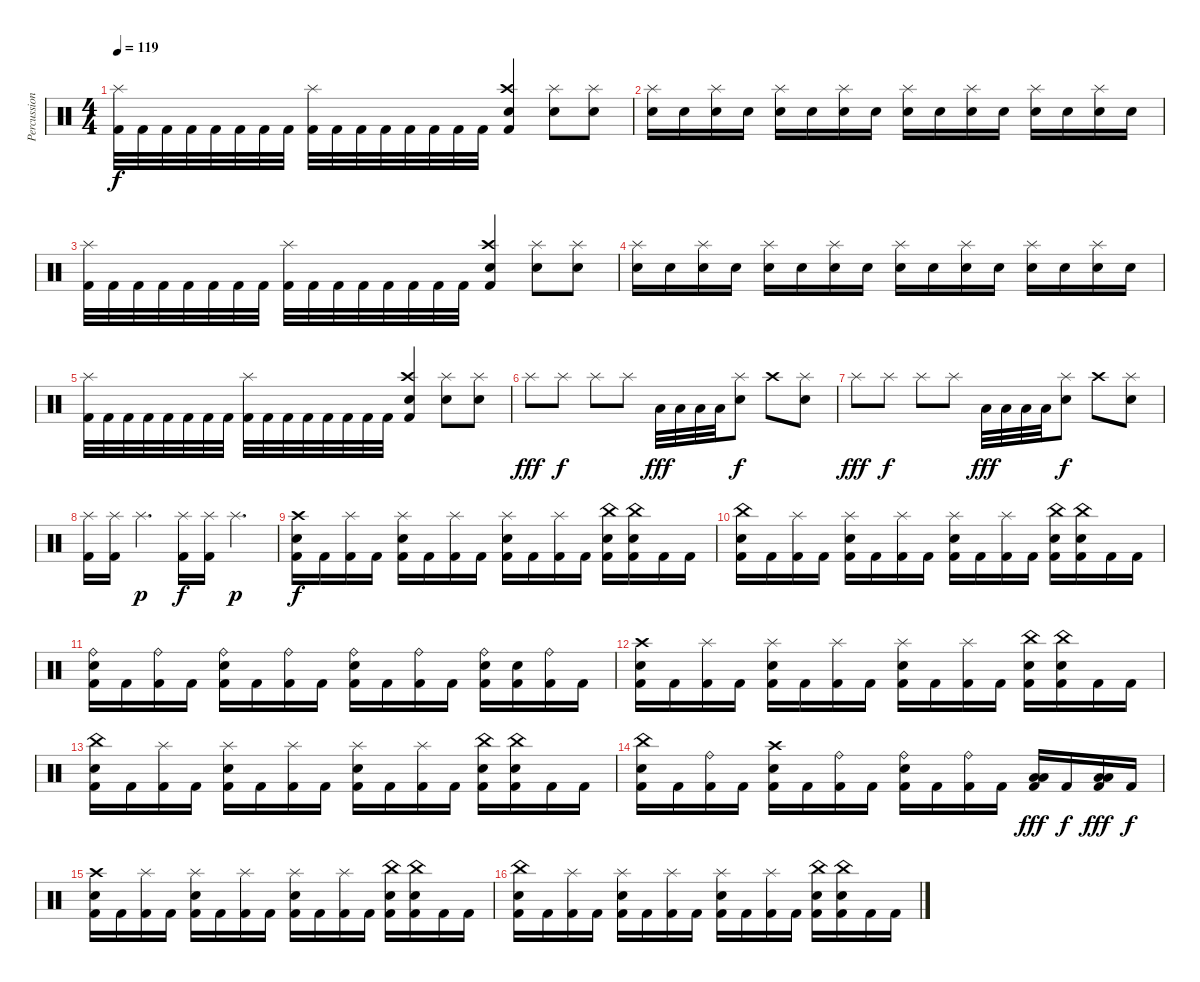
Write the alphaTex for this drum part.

\track ("Percussion" "Percussion") {instrument percussion}
\staff {score}
\articulation defaults
\ts (4 4)
\tempo 119
\clef neutral
\ks c
("Splash (hit)" "Kick (hit) 2").32{dy f} "Kick (hit) 2".32 "Kick (hit) 2".32 "Kick (hit) 2".32 "Kick (hit) 2".32 "Kick (hit) 2".32 "Kick (hit) 2".32 "Kick (hit) 2".32 ("Splash (hit)" "Kick (hit) 2").32 "Kick (hit) 2".32 "Kick (hit) 2".32 "Kick (hit) 2".32 "Kick (hit) 2".32 "Kick (hit) 2".32 "Kick (hit) 2".32 "Kick (hit) 2".32 ("Crash high (hit)" "Electric Snare (hit)" "Kick (hit) 2").4 ("Splash (hit)" "Electric Snare (hit)").8 ("Splash (hit)" "Electric Snare (hit)").8 |
("Splash (hit)" "Electric Snare (hit)").16 "Electric Snare (hit)".16 ("Splash (hit)" "Electric Snare (hit)").16 "Electric Snare (hit)".16 ("Splash (hit)" "Electric Snare (hit)").16 "Electric Snare (hit)".16 ("Splash (hit)" "Electric Snare (hit)").16 "Electric Snare (hit)".16 ("Splash (hit)" "Electric Snare (hit)").16 "Electric Snare (hit)".16 ("Splash (hit)" "Electric Snare (hit)").16 "Electric Snare (hit)".16 ("Splash (hit)" "Electric Snare (hit)").16 "Electric Snare (hit)".16 ("Splash (hit)" "Electric Snare (hit)").16 "Electric Snare (hit)".16 |
("Splash (hit)" "Kick (hit) 2").32 "Kick (hit) 2".32 "Kick (hit) 2".32 "Kick (hit) 2".32 "Kick (hit) 2".32 "Kick (hit) 2".32 "Kick (hit) 2".32 "Kick (hit) 2".32 ("Splash (hit)" "Kick (hit) 2").32 "Kick (hit) 2".32 "Kick (hit) 2".32 "Kick (hit) 2".32 "Kick (hit) 2".32 "Kick (hit) 2".32 "Kick (hit) 2".32 "Kick (hit) 2".32 ("Crash high (hit)" "Electric Snare (hit)" "Kick (hit) 2").4 ("Splash (hit)" "Electric Snare (hit)").8 ("Splash (hit)" "Electric Snare (hit)").8 |
("Splash (hit)" "Electric Snare (hit)").16 "Electric Snare (hit)".16 ("Splash (hit)" "Electric Snare (hit)").16 "Electric Snare (hit)".16 ("Splash (hit)" "Electric Snare (hit)").16 "Electric Snare (hit)".16 ("Splash (hit)" "Electric Snare (hit)").16 "Electric Snare (hit)".16 ("Splash (hit)" "Electric Snare (hit)").16 "Electric Snare (hit)".16 ("Splash (hit)" "Electric Snare (hit)").16 "Electric Snare (hit)".16 ("Splash (hit)" "Electric Snare (hit)").16 "Electric Snare (hit)".16 ("Splash (hit)" "Electric Snare (hit)").16 "Electric Snare (hit)".16 |
("Splash (hit)" "Kick (hit) 2").32 "Kick (hit) 2".32 "Kick (hit) 2".32 "Kick (hit) 2".32 "Kick (hit) 2".32 "Kick (hit) 2".32 "Kick (hit) 2".32 "Kick (hit) 2".32 ("Splash (hit)" "Kick (hit) 2").32 "Kick (hit) 2".32 "Kick (hit) 2".32 "Kick (hit) 2".32 "Kick (hit) 2".32 "Kick (hit) 2".32 "Kick (hit) 2".32 "Kick (hit) 2".32 ("Crash high (hit)" "Electric Snare (hit)" "Kick (hit) 2").4 ("Splash (hit)" "Electric Snare (hit)").8 ("Splash (hit)" "Electric Snare (hit)").8 |
"Splash (hit)".8{dy fff} "Splash (hit)".8{dy f} "Splash (hit)".8 "Splash (hit)".8 "Low Tom (hit)".32{dy fff} "Low Tom (hit)".32 "Low Tom (hit)".32 "Low Tom (hit)".32 ("Splash (hit)" "Electric Snare (hit)").8{dy f} "Crash high (hit)".8 ("Splash (hit)" "Electric Snare (hit)").8 |
"Splash (hit)".8{dy fff} "Splash (hit)".8{dy f} "Splash (hit)".8 "Splash (hit)".8 "Low Tom (hit)".32{dy fff} "Low Tom (hit)".32 "Low Tom (hit)".32 "Low Tom (hit)".32 ("Splash (hit)" "Electric Snare (hit)").8{dy f} "Crash high (hit)".8 ("Splash (hit)" "Electric Snare (hit)").8 |
("Splash (hit)" "Kick (hit) 2").16 ("Splash (hit)" "Kick (hit) 2").16 "Splash (hit)".4{d dy p} ("Splash (hit)" "Kick (hit) 2").16{dy f} ("Splash (hit)" "Kick (hit) 2").16 "Splash (hit)".4{d dy p} |
("Crash high (hit)" "Electric Snare (hit)" "Kick (hit) 2").16{dy f} "Kick (hit) 2".16 ("Splash (hit)" "Kick (hit) 2").16 "Kick (hit) 2".16 ("Splash (hit)" "Electric Snare (hit)" "Kick (hit) 2").16 "Kick (hit) 2".16 ("Splash (hit)" "Kick (hit) 2").16 "Kick (hit) 2".16 ("Splash (hit)" "Electric Snare (hit)" "Kick (hit) 2").16 "Kick (hit) 2".16 ("Splash (hit)" "Kick (hit) 2").16 "Kick (hit) 2".16 ("China (hit)" "Electric Snare (hit)" "Kick (hit) 2").16 ("China (hit)" "Electric Snare (hit)" "Kick (hit) 2").16 "Kick (hit) 2".16 "Kick (hit) 2".16 |
("China (hit)" "Electric Snare (hit)" "Kick (hit) 2").16 "Kick (hit) 2".16 ("Splash (hit)" "Kick (hit) 2").16 "Kick (hit) 2".16 ("Splash (hit)" "Electric Snare (hit)" "Kick (hit) 2").16 "Kick (hit) 2".16 ("Splash (hit)" "Kick (hit) 2").16 "Kick (hit) 2".16 ("Splash (hit)" "Electric Snare (hit)" "Kick (hit) 2").16 "Kick (hit) 2".16 ("Splash (hit)" "Kick (hit) 2").16 "Kick (hit) 2".16 ("China (hit)" "Electric Snare (hit)" "Kick (hit) 2").16 ("China (hit)" "Electric Snare (hit)" "Kick (hit) 2").16 "Kick (hit) 2".16 "Kick (hit) 2".16 |
("Ride (bell)" "Electric Snare (hit)" "Kick (hit) 2").16 "Kick (hit) 2".16 ("Ride (bell)" "Kick (hit) 2").16 "Kick (hit) 2".16 ("Ride (bell)" "Electric Snare (hit)" "Kick (hit) 2").16 "Kick (hit) 2".16 ("Ride (bell)" "Kick (hit) 2").16 "Kick (hit) 2".16 ("Ride (bell)" "Electric Snare (hit)" "Kick (hit) 2").16 "Kick (hit) 2".16 ("Ride (bell)" "Kick (hit) 2").16 "Kick (hit) 2".16 ("Ride (bell)" "Electric Snare (hit)" "Kick (hit) 2").16 ("Electric Snare (hit)" "Kick (hit) 2").16 ("Ride (bell)" "Kick (hit) 2").16 "Kick (hit) 2".16 |
("Crash high (hit)" "Electric Snare (hit)" "Kick (hit) 2").16 "Kick (hit) 2".16 ("Splash (hit)" "Kick (hit) 2").16 "Kick (hit) 2".16 ("Splash (hit)" "Electric Snare (hit)" "Kick (hit) 2").16 "Kick (hit) 2".16 ("Splash (hit)" "Kick (hit) 2").16 "Kick (hit) 2".16 ("Splash (hit)" "Electric Snare (hit)" "Kick (hit) 2").16 "Kick (hit) 2".16 ("Splash (hit)" "Kick (hit) 2").16 "Kick (hit) 2".16 ("China (hit)" "Electric Snare (hit)" "Kick (hit) 2").16 ("China (hit)" "Electric Snare (hit)" "Kick (hit) 2").16 "Kick (hit) 2".16 "Kick (hit) 2".16 |
("China (hit)" "Electric Snare (hit)" "Kick (hit) 2").16 "Kick (hit) 2".16 ("Splash (hit)" "Kick (hit) 2").16 "Kick (hit) 2".16 ("Splash (hit)" "Electric Snare (hit)" "Kick (hit) 2").16 "Kick (hit) 2".16 ("Splash (hit)" "Kick (hit) 2").16 "Kick (hit) 2".16 ("Splash (hit)" "Electric Snare (hit)" "Kick (hit) 2").16 "Kick (hit) 2".16 ("Splash (hit)" "Kick (hit) 2").16 "Kick (hit) 2".16 ("China (hit)" "Electric Snare (hit)" "Kick (hit) 2").16 ("China (hit)" "Electric Snare (hit)" "Kick (hit) 2").16 "Kick (hit) 2".16 "Kick (hit) 2".16 |
("China (hit)" "Electric Snare (hit)" "Kick (hit) 2").16 "Kick (hit) 2".16 ("Ride (bell)" "Kick (hit) 2").16 "Kick (hit) 2".16 ("Crash high (hit)" "Electric Snare (hit)" "Kick (hit) 2").16 "Kick (hit) 2".16 ("Ride (bell)" "Kick (hit) 2").16 "Kick (hit) 2".16 ("Ride (bell)" "Electric Snare (hit)" "Kick (hit) 2").16 "Kick (hit) 2".16 ("Ride (bell)" "Kick (hit) 2").16 "Kick (hit) 2".16 ("Low Tom (hit)" "Low Tom (hit)" "Kick (hit) 2").16{dy fff} "Kick (hit) 2".16{dy f} ("Low Tom (hit)" "Low Tom (hit)" "Kick (hit) 2").16{dy fff} "Kick (hit) 2".16{dy f} |
("Crash high (hit)" "Electric Snare (hit)" "Kick (hit) 2").16 "Kick (hit) 2".16 ("Splash (hit)" "Kick (hit) 2").16 "Kick (hit) 2".16 ("Splash (hit)" "Electric Snare (hit)" "Kick (hit) 2").16 "Kick (hit) 2".16 ("Splash (hit)" "Kick (hit) 2").16 "Kick (hit) 2".16 ("Splash (hit)" "Electric Snare (hit)" "Kick (hit) 2").16 "Kick (hit) 2".16 ("Splash (hit)" "Kick (hit) 2").16 "Kick (hit) 2".16 ("China (hit)" "Electric Snare (hit)" "Kick (hit) 2").16 ("China (hit)" "Electric Snare (hit)" "Kick (hit) 2").16 "Kick (hit) 2".16 "Kick (hit) 2".16 |
("China (hit)" "Electric Snare (hit)" "Kick (hit) 2").16 "Kick (hit) 2".16 ("Splash (hit)" "Kick (hit) 2").16 "Kick (hit) 2".16 ("Splash (hit)" "Electric Snare (hit)" "Kick (hit) 2").16 "Kick (hit) 2".16 ("Splash (hit)" "Kick (hit) 2").16 "Kick (hit) 2".16 ("Splash (hit)" "Electric Snare (hit)" "Kick (hit) 2").16 "Kick (hit) 2".16 ("Splash (hit)" "Kick (hit) 2").16 "Kick (hit) 2".16 ("China (hit)" "Electric Snare (hit)" "Kick (hit) 2").16 ("China (hit)" "Electric Snare (hit)" "Kick (hit) 2").16 "Kick (hit) 2".16 "Kick (hit) 2".16
